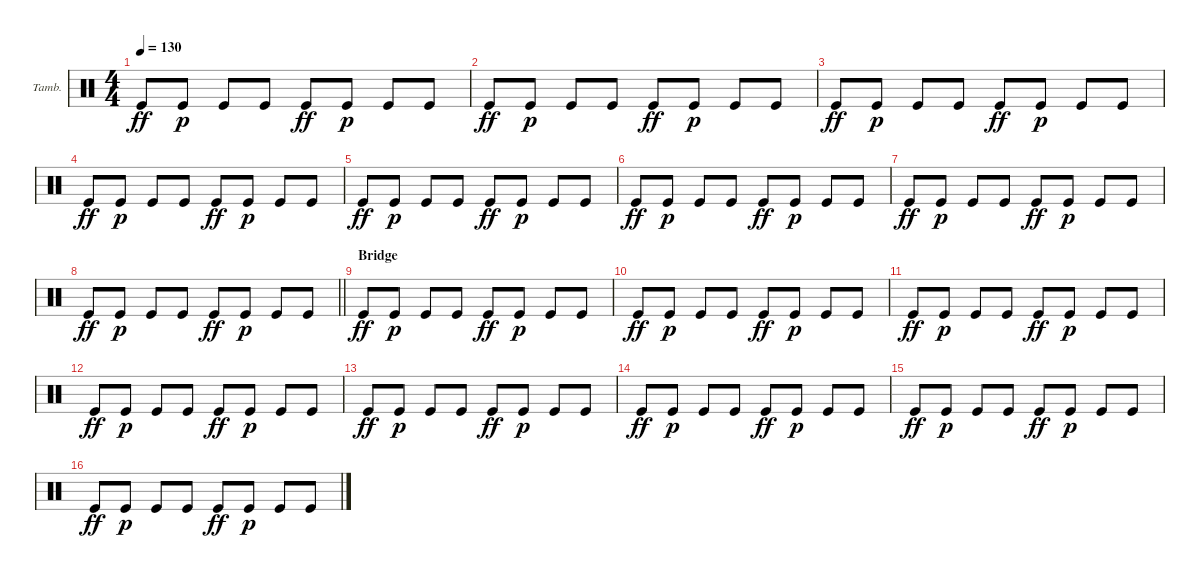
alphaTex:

\bracketExtendMode groupsimilarinstruments
\firstSystemTrackNameOrientation horizontal
\otherSystemsTrackNameOrientation horizontal
\track ("Tambourine" "Tamb.") {instrument percussion}
\staff {score}
\articulation defaults
\ts (4 4)
\tempo 130
\clef neutral
\ks c "Kick (hit)".8{dy ff} "Kick (hit)".8{dy p} "Kick (hit)".8 "Kick (hit)".8 "Kick (hit)".8{dy ff} "Kick (hit)".8{dy p} "Kick (hit)".8 "Kick (hit)".8
|
"Kick (hit)".8{dy ff} "Kick (hit)".8{dy p} "Kick (hit)".8 "Kick (hit)".8 "Kick (hit)".8{dy ff} "Kick (hit)".8{dy p} "Kick (hit)".8 "Kick (hit)".8 |
"Kick (hit)".8{dy ff} "Kick (hit)".8{dy p} "Kick (hit)".8 "Kick (hit)".8 "Kick (hit)".8{dy ff} "Kick (hit)".8{dy p} "Kick (hit)".8 "Kick (hit)".8 |
"Kick (hit)".8{dy ff} "Kick (hit)".8{dy p} "Kick (hit)".8 "Kick (hit)".8 "Kick (hit)".8{dy ff} "Kick (hit)".8{dy p} "Kick (hit)".8 "Kick (hit)".8 |
"Kick (hit)".8{dy ff} "Kick (hit)".8{dy p} "Kick (hit)".8 "Kick (hit)".8 "Kick (hit)".8{dy ff} "Kick (hit)".8{dy p} "Kick (hit)".8 "Kick (hit)".8 |
"Kick (hit)".8{dy ff} "Kick (hit)".8{dy p} "Kick (hit)".8 "Kick (hit)".8 "Kick (hit)".8{dy ff} "Kick (hit)".8{dy p} "Kick (hit)".8 "Kick (hit)".8 |
"Kick (hit)".8{dy ff} "Kick (hit)".8{dy p} "Kick (hit)".8 "Kick (hit)".8 "Kick (hit)".8{dy ff} "Kick (hit)".8{dy p} "Kick (hit)".8 "Kick (hit)".8 |
\barLineRight lightlight "Kick (hit)".8{dy ff} "Kick (hit)".8{dy p} "Kick (hit)".8 "Kick (hit)".8 "Kick (hit)".8{dy ff} "Kick (hit)".8{dy p} "Kick (hit)".8 "Kick (hit)".8
|
\section ("" "Bridge")
"Kick (hit)".8{dy ff} "Kick (hit)".8{dy p} "Kick (hit)".8 "Kick (hit)".8 "Kick (hit)".8{dy ff} "Kick (hit)".8{dy p} "Kick (hit)".8 "Kick (hit)".8 |
"Kick (hit)".8{dy ff} "Kick (hit)".8{dy p} "Kick (hit)".8 "Kick (hit)".8 "Kick (hit)".8{dy ff} "Kick (hit)".8{dy p} "Kick (hit)".8 "Kick (hit)".8 |
"Kick (hit)".8{dy ff} "Kick (hit)".8{dy p} "Kick (hit)".8 "Kick (hit)".8 "Kick (hit)".8{dy ff} "Kick (hit)".8{dy p} "Kick (hit)".8 "Kick (hit)".8 |
"Kick (hit)".8{dy ff} "Kick (hit)".8{dy p} "Kick (hit)".8 "Kick (hit)".8 "Kick (hit)".8{dy ff} "Kick (hit)".8{dy p} "Kick (hit)".8 "Kick (hit)".8 |
"Kick (hit)".8{dy ff} "Kick (hit)".8{dy p} "Kick (hit)".8 "Kick (hit)".8 "Kick (hit)".8{dy ff} "Kick (hit)".8{dy p} "Kick (hit)".8 "Kick (hit)".8 |
"Kick (hit)".8{dy ff} "Kick (hit)".8{dy p} "Kick (hit)".8 "Kick (hit)".8 "Kick (hit)".8{dy ff} "Kick (hit)".8{dy p} "Kick (hit)".8 "Kick (hit)".8 |
"Kick (hit)".8{dy ff} "Kick (hit)".8{dy p} "Kick (hit)".8 "Kick (hit)".8 "Kick (hit)".8{dy ff} "Kick (hit)".8{dy p} "Kick (hit)".8 "Kick (hit)".8 |
"Kick (hit)".8{dy ff} "Kick (hit)".8{dy p} "Kick (hit)".8 "Kick (hit)".8 "Kick (hit)".8{dy ff} "Kick (hit)".8{dy p} "Kick (hit)".8 "Kick (hit)".8
